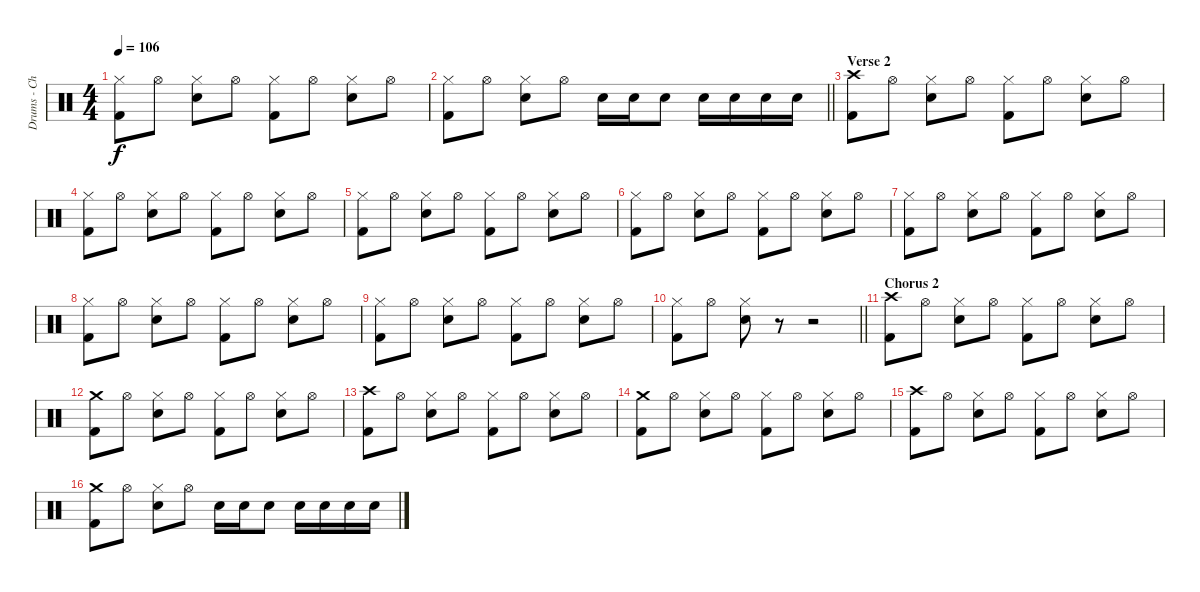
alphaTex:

\track ("Drums - Christoph Schneider" "Drums - Ch") {instrument percussion}
\staff {score}
\articulation defaults
\ts (4 4)
\tempo 106
\clef neutral
\ks c
("Hi-Hat (closed)" "Kick (hit) 2").8{dy f} "Hi-Hat (open)".8 ("Hi-Hat (closed)" "Snare (hit) 2").8 "Hi-Hat (open)".8 ("Hi-Hat (closed)" "Kick (hit) 2").8 "Hi-Hat (open)".8 ("Hi-Hat (closed)" "Snare (hit) 2").8 "Hi-Hat (open)".8 |
\barLineRight lightlight
("Hi-Hat (closed)" "Kick (hit) 2").8 "Hi-Hat (open)".8 ("Hi-Hat (closed)" "Snare (hit) 2").8 "Hi-Hat (open)".8 "Snare (hit) 2".16 "Snare (hit) 2".16 "Snare (hit) 2".8 "Snare (hit) 2".16 "Snare (hit) 2".16 "Snare (hit) 2".16 "Snare (hit) 2".16 |
\section ("" "Verse 2")
("Crash high (hit)" "Kick (hit) 2").8 "Hi-Hat (open)".8 ("Hi-Hat (closed)" "Snare (hit) 2").8 "Hi-Hat (open)".8 ("Hi-Hat (closed)" "Kick (hit) 2").8 "Hi-Hat (open)".8 ("Hi-Hat (closed)" "Snare (hit) 2").8 "Hi-Hat (open)".8 |
("Hi-Hat (closed)" "Kick (hit) 2").8 "Hi-Hat (open)".8 ("Hi-Hat (closed)" "Snare (hit) 2").8 "Hi-Hat (open)".8 ("Hi-Hat (closed)" "Kick (hit) 2").8 "Hi-Hat (open)".8 ("Hi-Hat (closed)" "Snare (hit) 2").8 "Hi-Hat (open)".8 |
("Hi-Hat (closed)" "Kick (hit) 2").8 "Hi-Hat (open)".8 ("Hi-Hat (closed)" "Snare (hit) 2").8 "Hi-Hat (open)".8 ("Hi-Hat (closed)" "Kick (hit) 2").8 "Hi-Hat (open)".8 ("Hi-Hat (closed)" "Snare (hit) 2").8 "Hi-Hat (open)".8 |
("Hi-Hat (closed)" "Kick (hit) 2").8 "Hi-Hat (open)".8 ("Hi-Hat (closed)" "Snare (hit) 2").8 "Hi-Hat (open)".8 ("Hi-Hat (closed)" "Kick (hit) 2").8 "Hi-Hat (open)".8 ("Hi-Hat (closed)" "Snare (hit) 2").8 "Hi-Hat (open)".8 |
("Hi-Hat (closed)" "Kick (hit) 2").8 "Hi-Hat (open)".8 ("Hi-Hat (closed)" "Snare (hit) 2").8 "Hi-Hat (open)".8 ("Hi-Hat (closed)" "Kick (hit) 2").8 "Hi-Hat (open)".8 ("Hi-Hat (closed)" "Snare (hit) 2").8 "Hi-Hat (open)".8 |
("Hi-Hat (closed)" "Kick (hit) 2").8 "Hi-Hat (open)".8 ("Hi-Hat (closed)" "Snare (hit) 2").8 "Hi-Hat (open)".8 ("Hi-Hat (closed)" "Kick (hit) 2").8 "Hi-Hat (open)".8 ("Hi-Hat (closed)" "Snare (hit) 2").8 "Hi-Hat (open)".8 |
("Hi-Hat (closed)" "Kick (hit) 2").8 "Hi-Hat (open)".8 ("Hi-Hat (closed)" "Snare (hit) 2").8 "Hi-Hat (open)".8 ("Hi-Hat (closed)" "Kick (hit) 2").8 "Hi-Hat (open)".8 ("Hi-Hat (closed)" "Snare (hit) 2").8 "Hi-Hat (open)".8 |
\barLineRight lightlight
("Hi-Hat (closed)" "Kick (hit) 2").8 "Hi-Hat (open)".8 ("Hi-Hat (closed)" "Snare (hit) 2").8 r.8 r.2 |
\section ("" "Chorus 2")
("Crash high (hit)" "Kick (hit) 2").8 "Hi-Hat (open)".8 ("Hi-Hat (closed)" "Snare (hit) 2").8 "Hi-Hat (open)".8 ("Hi-Hat (closed)" "Kick (hit) 2").8 "Hi-Hat (open)".8 ("Hi-Hat (closed)" "Snare (hit) 2").8 "Hi-Hat (open)".8 |
("Crash medium (hit)" "Kick (hit) 2").8 "Hi-Hat (open)".8 ("Hi-Hat (closed)" "Snare (hit) 2").8 "Hi-Hat (open)".8 ("Hi-Hat (closed)" "Kick (hit) 2").8 "Hi-Hat (open)".8 ("Hi-Hat (closed)" "Snare (hit) 2").8 "Hi-Hat (open)".8 |
("Crash high (hit)" "Kick (hit) 2").8 "Hi-Hat (open)".8 ("Hi-Hat (closed)" "Snare (hit) 2").8 "Hi-Hat (open)".8 ("Hi-Hat (closed)" "Kick (hit) 2").8 "Hi-Hat (open)".8 ("Hi-Hat (closed)" "Snare (hit) 2").8 "Hi-Hat (open)".8 |
("Crash medium (hit)" "Kick (hit) 2").8 "Hi-Hat (open)".8 ("Hi-Hat (closed)" "Snare (hit) 2").8 "Hi-Hat (open)".8 ("Hi-Hat (closed)" "Kick (hit) 2").8 "Hi-Hat (open)".8 ("Hi-Hat (closed)" "Snare (hit) 2").8 "Hi-Hat (open)".8 |
("Crash high (hit)" "Kick (hit) 2").8 "Hi-Hat (open)".8 ("Hi-Hat (closed)" "Snare (hit) 2").8 "Hi-Hat (open)".8 ("Hi-Hat (closed)" "Kick (hit) 2").8 "Hi-Hat (open)".8 ("Hi-Hat (closed)" "Snare (hit) 2").8 "Hi-Hat (open)".8 |
("Crash medium (hit)" "Kick (hit) 2").8 "Hi-Hat (open)".8 ("Hi-Hat (closed)" "Snare (hit) 2").8 "Hi-Hat (open)".8 "Snare (hit) 2".16 "Snare (hit) 2".16 "Snare (hit) 2".8 "Snare (hit) 2".16 "Snare (hit) 2".16 "Snare (hit) 2".16 "Snare (hit) 2".16
